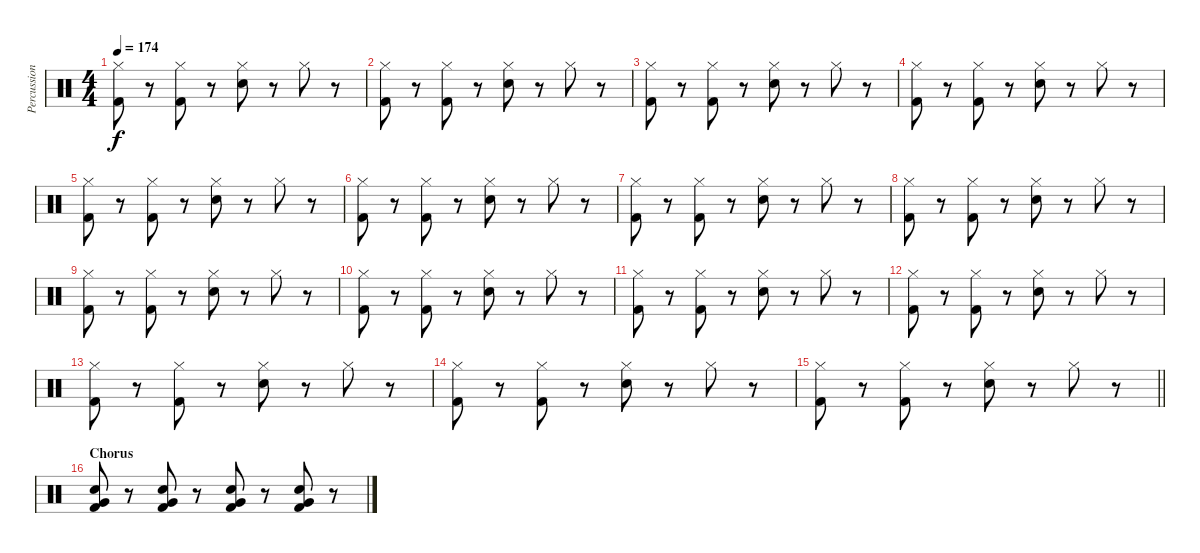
\track ("Percussion" "Percussion") {instrument percussion}
\staff {score}
\articulation defaults
\ts (4 4)
\tempo 174
\clef neutral
\ks c
("Hi-Hat (closed)" "Kick (hit) 2").8{dy f} r.8 ("Hi-Hat (closed)" "Kick (hit) 2").8 r.8 ("Hi-Hat (closed)" "Snare (hit) 2").8 r.8 "Hi-Hat (closed)".8 r.8 |
("Hi-Hat (closed)" "Kick (hit) 2").8 r.8 ("Hi-Hat (closed)" "Kick (hit) 2").8 r.8 ("Hi-Hat (closed)" "Snare (hit) 2").8 r.8 "Hi-Hat (closed)".8 r.8 |
("Hi-Hat (closed)" "Kick (hit) 2").8 r.8 ("Hi-Hat (closed)" "Kick (hit) 2").8 r.8 ("Hi-Hat (closed)" "Snare (hit) 2").8 r.8 "Hi-Hat (closed)".8 r.8 |
("Hi-Hat (closed)" "Kick (hit) 2").8 r.8 ("Hi-Hat (closed)" "Kick (hit) 2").8 r.8 ("Hi-Hat (closed)" "Snare (hit) 2").8 r.8 "Hi-Hat (closed)".8 r.8 |
("Hi-Hat (closed)" "Kick (hit) 2").8 r.8 ("Hi-Hat (closed)" "Kick (hit) 2").8 r.8 ("Hi-Hat (closed)" "Snare (hit) 2").8 r.8 "Hi-Hat (closed)".8 r.8 |
("Hi-Hat (closed)" "Kick (hit) 2").8 r.8 ("Hi-Hat (closed)" "Kick (hit) 2").8 r.8 ("Hi-Hat (closed)" "Snare (hit) 2").8 r.8 "Hi-Hat (closed)".8 r.8 |
("Hi-Hat (closed)" "Kick (hit) 2").8 r.8 ("Hi-Hat (closed)" "Kick (hit) 2").8 r.8 ("Hi-Hat (closed)" "Snare (hit) 2").8 r.8 "Hi-Hat (closed)".8 r.8 |
("Hi-Hat (closed)" "Kick (hit) 2").8 r.8 ("Hi-Hat (closed)" "Kick (hit) 2").8 r.8 ("Hi-Hat (closed)" "Snare (hit) 2").8 r.8 "Hi-Hat (closed)".8 r.8 |
("Hi-Hat (closed)" "Kick (hit) 2").8 r.8 ("Hi-Hat (closed)" "Kick (hit) 2").8 r.8 ("Hi-Hat (closed)" "Snare (hit) 2").8 r.8 "Hi-Hat (closed)".8 r.8 |
("Hi-Hat (closed)" "Kick (hit) 2").8 r.8 ("Hi-Hat (closed)" "Kick (hit) 2").8 r.8 ("Hi-Hat (closed)" "Snare (hit) 2").8 r.8 "Hi-Hat (closed)".8 r.8 |
("Hi-Hat (closed)" "Kick (hit) 2").8 r.8 ("Hi-Hat (closed)" "Kick (hit) 2").8 r.8 ("Hi-Hat (closed)" "Snare (hit) 2").8 r.8 "Hi-Hat (closed)".8 r.8 |
("Hi-Hat (closed)" "Kick (hit) 2").8 r.8 ("Hi-Hat (closed)" "Kick (hit) 2").8 r.8 ("Hi-Hat (closed)" "Snare (hit) 2").8 r.8 "Hi-Hat (closed)".8 r.8 |
("Hi-Hat (closed)" "Kick (hit) 2").8 r.8 ("Hi-Hat (closed)" "Kick (hit) 2").8 r.8 ("Hi-Hat (closed)" "Snare (hit) 2").8 r.8 "Hi-Hat (closed)".8 r.8 |
("Hi-Hat (closed)" "Kick (hit) 2").8 r.8 ("Hi-Hat (closed)" "Kick (hit) 2").8 r.8 ("Hi-Hat (closed)" "Snare (hit) 2").8 r.8 "Hi-Hat (closed)".8 r.8 |
\barLineRight lightlight
("Hi-Hat (closed)" "Kick (hit) 2").8 r.8 ("Hi-Hat (closed)" "Kick (hit) 2").8 r.8 ("Hi-Hat (closed)" "Snare (hit) 2").8 r.8 "Hi-Hat (closed)".8 r.8 |
\section ("" "Chorus")
("Snare (hit) 2" "Very Low Tom (hit)" "Kick (hit) 2").8 r.8 ("Snare (hit) 2" "Very Low Tom (hit)" "Kick (hit) 2").8 r.8 ("Snare (hit) 2" "Very Low Tom (hit)" "Kick (hit) 2").8 r.8 ("Snare (hit) 2" "Very Low Tom (hit)" "Kick (hit) 2").8 r.8
